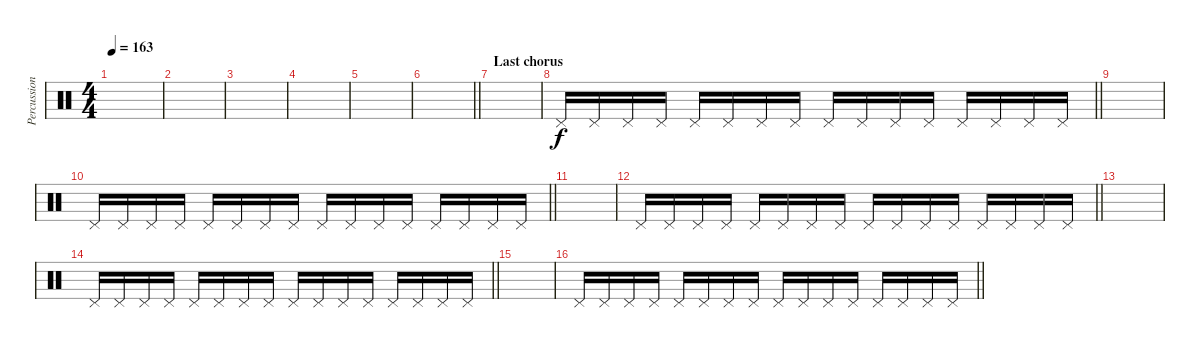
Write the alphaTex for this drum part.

\track ("Percussion" "Percussion") {instrument percussion}
\staff {score}
\articulation defaults
\ts (4 4)
\tempo 163
\clef neutral
\ks c
|
|
|
|
|
\barLineRight lightlight
|
\section ("" "Last chorus")
|
\barLineRight lightlight "Pedal Hi-Hat (hit)".16 "Pedal Hi-Hat (hit)".16 "Pedal Hi-Hat (hit)".16 "Pedal Hi-Hat (hit)".16 "Pedal Hi-Hat (hit)".16 "Pedal Hi-Hat (hit)".16 "Pedal Hi-Hat (hit)".16 "Pedal Hi-Hat (hit)".16 "Pedal Hi-Hat (hit)".16 "Pedal Hi-Hat (hit)".16 "Pedal Hi-Hat (hit)".16 "Pedal Hi-Hat (hit)".16 "Pedal Hi-Hat (hit)".16 "Pedal Hi-Hat (hit)".16 "Pedal Hi-Hat (hit)".16 "Pedal Hi-Hat (hit)".16
|
|
\barLineRight lightlight "Pedal Hi-Hat (hit)".16 "Pedal Hi-Hat (hit)".16 "Pedal Hi-Hat (hit)".16 "Pedal Hi-Hat (hit)".16 "Pedal Hi-Hat (hit)".16 "Pedal Hi-Hat (hit)".16 "Pedal Hi-Hat (hit)".16 "Pedal Hi-Hat (hit)".16 "Pedal Hi-Hat (hit)".16 "Pedal Hi-Hat (hit)".16 "Pedal Hi-Hat (hit)".16 "Pedal Hi-Hat (hit)".16 "Pedal Hi-Hat (hit)".16 "Pedal Hi-Hat (hit)".16 "Pedal Hi-Hat (hit)".16 "Pedal Hi-Hat (hit)".16
|
|
\barLineRight lightlight "Pedal Hi-Hat (hit)".16 "Pedal Hi-Hat (hit)".16 "Pedal Hi-Hat (hit)".16 "Pedal Hi-Hat (hit)".16 "Pedal Hi-Hat (hit)".16 "Pedal Hi-Hat (hit)".16 "Pedal Hi-Hat (hit)".16 "Pedal Hi-Hat (hit)".16 "Pedal Hi-Hat (hit)".16 "Pedal Hi-Hat (hit)".16 "Pedal Hi-Hat (hit)".16 "Pedal Hi-Hat (hit)".16 "Pedal Hi-Hat (hit)".16 "Pedal Hi-Hat (hit)".16 "Pedal Hi-Hat (hit)".16 "Pedal Hi-Hat (hit)".16
|
|
\barLineRight lightlight "Pedal Hi-Hat (hit)".16 "Pedal Hi-Hat (hit)".16 "Pedal Hi-Hat (hit)".16 "Pedal Hi-Hat (hit)".16 "Pedal Hi-Hat (hit)".16 "Pedal Hi-Hat (hit)".16 "Pedal Hi-Hat (hit)".16 "Pedal Hi-Hat (hit)".16 "Pedal Hi-Hat (hit)".16 "Pedal Hi-Hat (hit)".16 "Pedal Hi-Hat (hit)".16 "Pedal Hi-Hat (hit)".16 "Pedal Hi-Hat (hit)".16 "Pedal Hi-Hat (hit)".16 "Pedal Hi-Hat (hit)".16 "Pedal Hi-Hat (hit)".16
|
|
\barLineRight lightlight "Pedal Hi-Hat (hit)".16 "Pedal Hi-Hat (hit)".16 "Pedal Hi-Hat (hit)".16 "Pedal Hi-Hat (hit)".16 "Pedal Hi-Hat (hit)".16 "Pedal Hi-Hat (hit)".16 "Pedal Hi-Hat (hit)".16 "Pedal Hi-Hat (hit)".16 "Pedal Hi-Hat (hit)".16 "Pedal Hi-Hat (hit)".16 "Pedal Hi-Hat (hit)".16 "Pedal Hi-Hat (hit)".16 "Pedal Hi-Hat (hit)".16 "Pedal Hi-Hat (hit)".16 "Pedal Hi-Hat (hit)".16 "Pedal Hi-Hat (hit)".16
